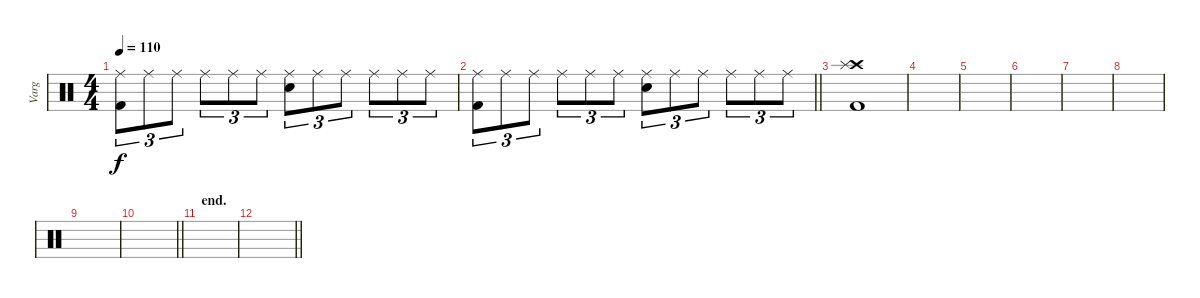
\track ("Varg" "Varg") {instrument percussion}
\staff {score}
\articulation defaults
\ts (4 4)
\tempo 110
\clef neutral
\ks c
("Ride (middle)" "Kick (hit) 2").8{tu (3 2) dy f} "Ride (middle)".8{tu (3 2)} "Ride (middle)".8{tu (3 2)} "Ride (middle)".8{tu (3 2)} "Ride (middle)".8{tu (3 2)} "Ride (middle)".8{tu (3 2)} ("Ride (middle)" "Snare (hit) 2").8{tu (3 2)} "Ride (middle)".8{tu (3 2)} "Ride (middle)".8{tu (3 2)} "Ride (middle)".8{tu (3 2)} "Ride (middle)".8{tu (3 2)} "Ride (middle)".8{tu (3 2)} |
\barLineRight lightlight
("Ride (middle)" "Kick (hit) 2").8{tu (3 2)} "Ride (middle)".8{tu (3 2)} "Ride (middle)".8{tu (3 2)} "Ride (middle)".8{tu (3 2)} "Ride (middle)".8{tu (3 2)} "Ride (middle)".8{tu (3 2)} ("Ride (middle)" "Snare (hit) 2").8{tu (3 2)} "Ride (middle)".8{tu (3 2)} "Ride (middle)".8{tu (3 2)} "Ride (middle)".8{tu (3 2)} "Ride (middle)".8{tu (3 2)} "Ride (middle)".8{tu (3 2)} |
\section ("" "")
("Crash high (hit)" "Splash (hit)" "Kick (hit) 2").1 |
|
|
|
|
|
|
\barLineRight lightlight
|
\section ("" "end.")
|
\barLineRight lightlight
